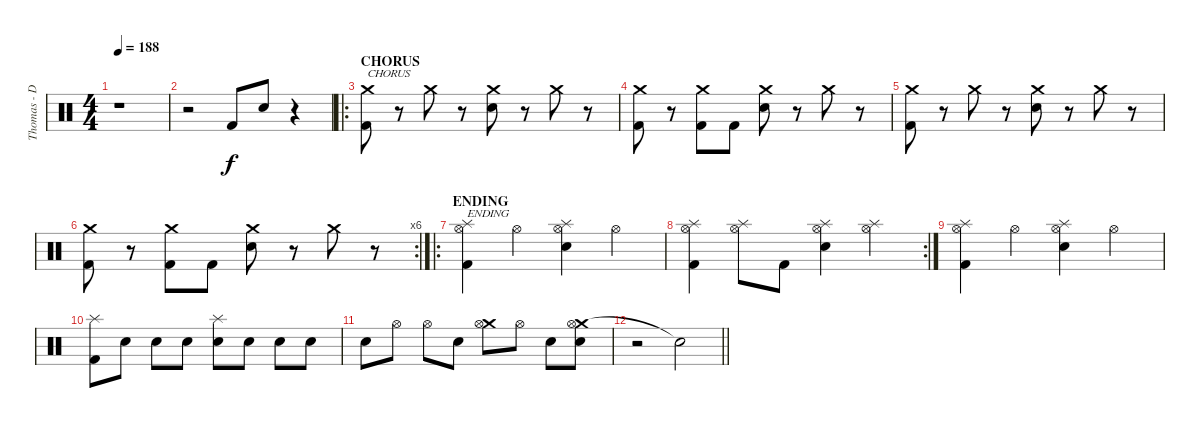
\track ("Thomas - Drums" "Thomas - D") {instrument percussion}
\staff {score}
\articulation defaults
\ts (4 4)
\tempo 188
\clef neutral
\ks c
r.1{dy f} |
r.2 "Kick (hit) 2".8 "Electric Snare (hit)".8 r.4 |
\ro
\section ("" "CHORUS")
("Crash medium (hit)" "Kick (hit) 2").8{txt "CHORUS"} r.8 "Crash medium (hit)".8 r.8 ("Crash medium (hit)" "Electric Snare (hit)").8 r.8 "Crash medium (hit)".8 r.8 |
("Crash medium (hit)" "Kick (hit) 2").8 r.8 ("Crash medium (hit)" "Kick (hit) 2").8 "Kick (hit) 2".8 ("Crash medium (hit)" "Electric Snare (hit)").8 r.8 "Crash medium (hit)".8 r.8 |
("Crash medium (hit)" "Kick (hit) 2").8 r.8 "Crash medium (hit)".8 r.8 ("Crash medium (hit)" "Electric Snare (hit)").8 r.8 "Crash medium (hit)".8 r.8 |
\rc 6
("Crash medium (hit)" "Kick (hit) 2").8 r.8 ("Crash medium (hit)" "Kick (hit) 2").8 "Kick (hit) 2".8 ("Crash medium (hit)" "Electric Snare (hit)").8 r.8 "Crash medium (hit)".8 r.8 |
\ro
\section ("" "ENDING")
("Splash (hit)" "Hi-Hat (open)" "Kick (hit) 2").4{txt "ENDING"} "Hi-Hat (open)".4 ("Splash (hit)" "Hi-Hat (open)" "Electric Snare (hit)").4 "Hi-Hat (open)".4 |
\rc 2
("Splash (hit)" "Hi-Hat (open)" "Kick (hit) 2").4 ("Splash (hit)" "Hi-Hat (open)").8 "Kick (hit) 2".8 ("Splash (hit)" "Hi-Hat (open)" "Electric Snare (hit)").4 ("Splash (hit)" "Hi-Hat (open)").4 |
("Splash (hit)" "Hi-Hat (open)" "Kick (hit) 2").4 "Hi-Hat (open)".4 ("Splash (hit)" "Hi-Hat (open)" "Electric Snare (hit)").4 "Hi-Hat (open)".4 |
("Splash (hit)" "Kick (hit) 2").8 "Electric Snare (hit)".8 "Electric Snare (hit)".8 "Electric Snare (hit)".8 ("Splash (hit)" "Electric Snare (hit)").8 "Electric Snare (hit)".8 "Electric Snare (hit)".8 "Electric Snare (hit)".8 |
"Electric Snare (hit)".8 "Hi-Hat (open)".8 "Hi-Hat (open)".8 "Electric Snare (hit)".8 ("Crash medium (hit)" "Hi-Hat (open)").8 "Hi-Hat (open)".8 "Electric Snare (hit)".8 ("Crash medium (hit)" "Hi-Hat (open)" "Electric Snare (hit)").8 |
\barLineRight lightlight
r.2 "Snare (hit)"{t}.2
